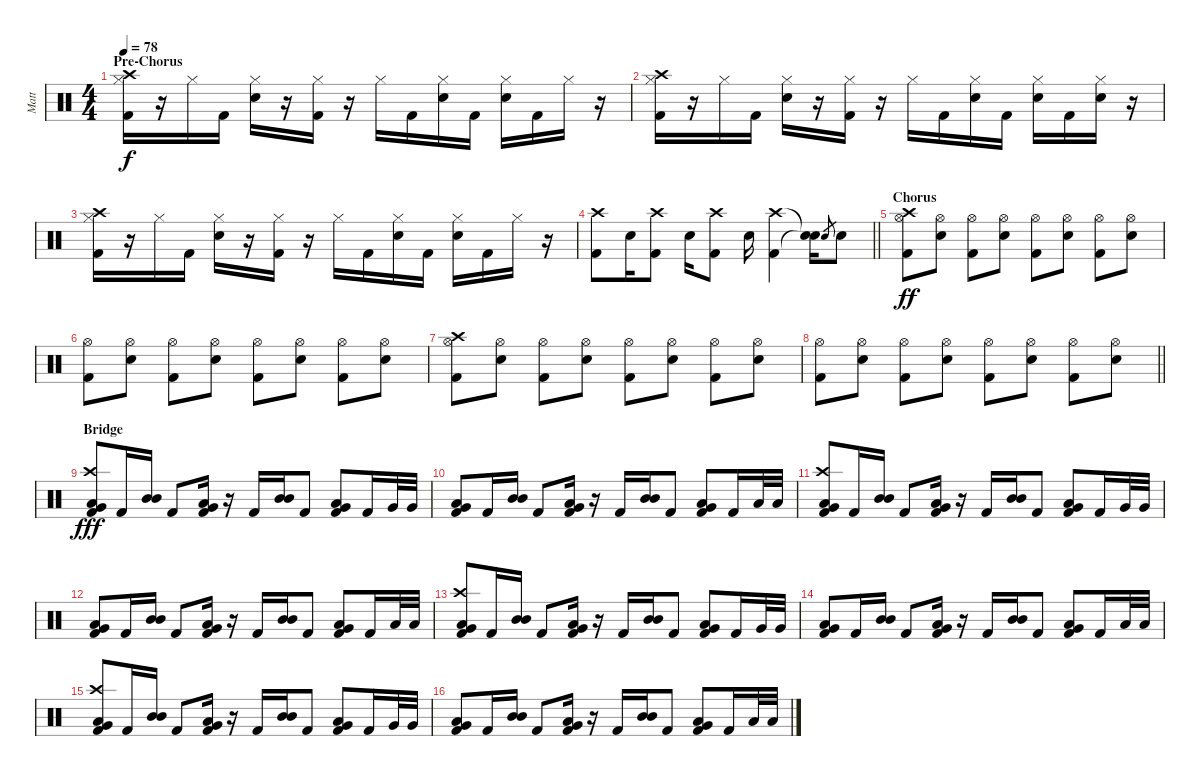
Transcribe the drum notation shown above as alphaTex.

\track ("Matt" "Matt") {instrument percussion}
\staff {score}
\articulation defaults
\ts (4 4)
\section ("" "Pre-Chorus")
\tempo 78
\clef neutral
\ks c
("Hi-Hat (closed)" "Kick (hit) 2" "Crash high (hit)").16{dy f} r.16 "Hi-Hat (closed)".16 "Kick (hit) 2".16 ("Hi-Hat (closed)" "Snare (hit) 2").16 r.16 ("Hi-Hat (closed)" "Kick (hit) 2").16 r.16 "Hi-Hat (closed)".16 "Kick (hit) 2".16 ("Hi-Hat (closed)" "Snare (hit) 2").16 "Kick (hit) 2".16 ("Hi-Hat (closed)" "Snare (hit) 2").16 "Kick (hit) 2".16 "Hi-Hat (closed)".16 r.16 |
("Hi-Hat (closed)" "Kick (hit) 2" "Crash high (hit)").16 r.16 "Hi-Hat (closed)".16 "Kick (hit) 2".16 ("Hi-Hat (closed)" "Snare (hit) 2").16 r.16 ("Hi-Hat (closed)" "Kick (hit) 2").16 r.16 "Hi-Hat (closed)".16 "Kick (hit) 2".16 ("Hi-Hat (closed)" "Snare (hit) 2").16 "Kick (hit) 2".16 ("Hi-Hat (closed)" "Snare (hit) 2").16 "Kick (hit) 2".16 ("Hi-Hat (closed)" "Snare (hit) 2").16 r.16 |
("Hi-Hat (closed)" "Kick (hit) 2" "Crash high (hit)").16 r.16 "Hi-Hat (closed)".16 "Kick (hit) 2".16 ("Hi-Hat (closed)" "Snare (hit) 2").16 r.16 ("Hi-Hat (closed)" "Kick (hit) 2").16 r.16 "Hi-Hat (closed)".16 "Kick (hit) 2".16 ("Hi-Hat (closed)" "Snare (hit) 2").16 "Kick (hit) 2".16 ("Hi-Hat (closed)" "Snare (hit) 2").16 "Kick (hit) 2".16 "Hi-Hat (closed)".16 r.16 |
\barLineRight lightlight
("Kick (hit) 2" "Crash high (hit)").8 "Snare (hit) 2".16 ("Kick (hit) 2" "Crash high (hit)").8 "Snare (hit) 2".16 ("Kick (hit) 2" "Crash high (hit)").8 "Snare (hit) 2".16 ("Kick (hit) 2" "Crash high (hit)").4 ("Snare (hit)"{t} "Snare (hit)"{t}).16 "Snare (hit) 2".8{gr} "Snare (hit) 2".8 |
\section ("" "Chorus")
("Hi-Hat (open)" "Kick (hit) 2" "Crash high (hit)").8{dy ff} ("Hi-Hat (open)" "Snare (hit) 2").8 ("Hi-Hat (open)" "Kick (hit) 2").8 ("Hi-Hat (open)" "Snare (hit) 2").8 ("Hi-Hat (open)" "Kick (hit) 2").8 ("Hi-Hat (open)" "Snare (hit) 2").8 ("Hi-Hat (open)" "Kick (hit) 2").8 ("Hi-Hat (open)" "Snare (hit) 2").8 |
("Hi-Hat (open)" "Kick (hit) 2").8 ("Hi-Hat (open)" "Snare (hit) 2").8 ("Hi-Hat (open)" "Kick (hit) 2").8 ("Hi-Hat (open)" "Snare (hit) 2").8 ("Hi-Hat (open)" "Kick (hit) 2").8 ("Hi-Hat (open)" "Snare (hit) 2").8 ("Hi-Hat (open)" "Kick (hit) 2").8 ("Hi-Hat (open)" "Snare (hit) 2").8 |
("Hi-Hat (open)" "Kick (hit) 2" "Crash high (hit)").8 ("Hi-Hat (open)" "Snare (hit) 2").8 ("Hi-Hat (open)" "Kick (hit) 2").8 ("Hi-Hat (open)" "Snare (hit) 2").8 ("Hi-Hat (open)" "Kick (hit) 2").8 ("Hi-Hat (open)" "Snare (hit) 2").8 ("Hi-Hat (open)" "Kick (hit) 2").8 ("Hi-Hat (open)" "Snare (hit) 2").8 |
\barLineRight lightlight
("Hi-Hat (open)" "Kick (hit) 2").8 ("Hi-Hat (open)" "Snare (hit) 2").8 ("Hi-Hat (open)" "Kick (hit) 2").8 ("Hi-Hat (open)" "Snare (hit) 2").8 ("Hi-Hat (open)" "Kick (hit) 2").8 ("Hi-Hat (open)" "Snare (hit) 2").8 ("Hi-Hat (open)" "Kick (hit) 2").8 ("Hi-Hat (open)" "Snare (hit) 2").8 |
\section ("" "Bridge")
("Crash high (hit)" "Low Floor Tom (hit)" "Very Low Tom (hit)" "Kick (hit) 2").8{dy fff} "Kick (hit) 2".16 ("Mid Tom (hit)" "Mid Tom (hit)").16 "Kick (hit) 2".8 ("Low Floor Tom (hit)" "Very Low Tom (hit)" "Kick (hit) 2").16 r.16 "Kick (hit) 2".16 ("Mid Tom (hit)" "Mid Tom (hit)").16 "Kick (hit) 2".8 ("Low Floor Tom (hit)" "Very Low Tom (hit)" "Kick (hit) 2").8 "Kick (hit) 2".16 "Very Low Tom (hit)".32 "Very Low Tom (hit)".32 |
("Low Floor Tom (hit)" "Very Low Tom (hit)" "Kick (hit) 2").8 "Kick (hit) 2".16 ("Mid Tom (hit)" "Mid Tom (hit)").16 "Kick (hit) 2".8 ("Low Floor Tom (hit)" "Very Low Tom (hit)" "Kick (hit) 2").16 r.16 "Kick (hit) 2".16 ("Mid Tom (hit)" "Mid Tom (hit)").16 "Kick (hit) 2".8 ("Low Floor Tom (hit)" "Very Low Tom (hit)" "Kick (hit) 2").8 "Kick (hit) 2".16 "Low Floor Tom (hit)".32 "Low Floor Tom (hit)".32 |
("Crash high (hit)" "Low Floor Tom (hit)" "Very Low Tom (hit)" "Kick (hit) 2").8 "Kick (hit) 2".16 ("Mid Tom (hit)" "Mid Tom (hit)").16 "Kick (hit) 2".8 ("Low Floor Tom (hit)" "Very Low Tom (hit)" "Kick (hit) 2").16 r.16 "Kick (hit) 2".16 ("Mid Tom (hit)" "Mid Tom (hit)").16 "Kick (hit) 2".8 ("Low Floor Tom (hit)" "Very Low Tom (hit)" "Kick (hit) 2").8 "Kick (hit) 2".16 "Very Low Tom (hit)".32 "Very Low Tom (hit)".32 |
("Low Floor Tom (hit)" "Very Low Tom (hit)" "Kick (hit) 2").8 "Kick (hit) 2".16 ("Mid Tom (hit)" "Mid Tom (hit)").16 "Kick (hit) 2".8 ("Low Floor Tom (hit)" "Very Low Tom (hit)" "Kick (hit) 2").16 r.16 "Kick (hit) 2".16 ("Mid Tom (hit)" "Mid Tom (hit)").16 "Kick (hit) 2".8 ("Low Floor Tom (hit)" "Very Low Tom (hit)" "Kick (hit) 2").8 "Kick (hit) 2".16 "Low Floor Tom (hit)".32 "Low Floor Tom (hit)".32 |
("Crash high (hit)" "Low Floor Tom (hit)" "Very Low Tom (hit)" "Kick (hit) 2").8 "Kick (hit) 2".16 ("Mid Tom (hit)" "Mid Tom (hit)").16 "Kick (hit) 2".8 ("Low Floor Tom (hit)" "Very Low Tom (hit)" "Kick (hit) 2").16 r.16 "Kick (hit) 2".16 ("Mid Tom (hit)" "Mid Tom (hit)").16 "Kick (hit) 2".8 ("Low Floor Tom (hit)" "Very Low Tom (hit)" "Kick (hit) 2").8 "Kick (hit) 2".16 "Very Low Tom (hit)".32 "Very Low Tom (hit)".32 |
("Low Floor Tom (hit)" "Very Low Tom (hit)" "Kick (hit) 2").8 "Kick (hit) 2".16 ("Mid Tom (hit)" "Mid Tom (hit)").16 "Kick (hit) 2".8 ("Low Floor Tom (hit)" "Very Low Tom (hit)" "Kick (hit) 2").16 r.16 "Kick (hit) 2".16 ("Mid Tom (hit)" "Mid Tom (hit)").16 "Kick (hit) 2".8 ("Low Floor Tom (hit)" "Very Low Tom (hit)" "Kick (hit) 2").8 "Kick (hit) 2".16 "Low Floor Tom (hit)".32 "Low Floor Tom (hit)".32 |
("Crash high (hit)" "Low Floor Tom (hit)" "Very Low Tom (hit)" "Kick (hit) 2").8 "Kick (hit) 2".16 ("Mid Tom (hit)" "Mid Tom (hit)").16 "Kick (hit) 2".8 ("Low Floor Tom (hit)" "Very Low Tom (hit)" "Kick (hit) 2").16 r.16 "Kick (hit) 2".16 ("Mid Tom (hit)" "Mid Tom (hit)").16 "Kick (hit) 2".8 ("Low Floor Tom (hit)" "Very Low Tom (hit)" "Kick (hit) 2").8 "Kick (hit) 2".16 "Very Low Tom (hit)".32 "Very Low Tom (hit)".32 |
("Low Floor Tom (hit)" "Very Low Tom (hit)" "Kick (hit) 2").8 "Kick (hit) 2".16 ("Mid Tom (hit)" "Mid Tom (hit)").16 "Kick (hit) 2".8 ("Low Floor Tom (hit)" "Very Low Tom (hit)" "Kick (hit) 2").16 r.16 "Kick (hit) 2".16 ("Mid Tom (hit)" "Mid Tom (hit)").16 "Kick (hit) 2".8 ("Low Floor Tom (hit)" "Very Low Tom (hit)" "Kick (hit) 2").8 "Kick (hit) 2".16 "Low Floor Tom (hit)".32 "Low Floor Tom (hit)".32
